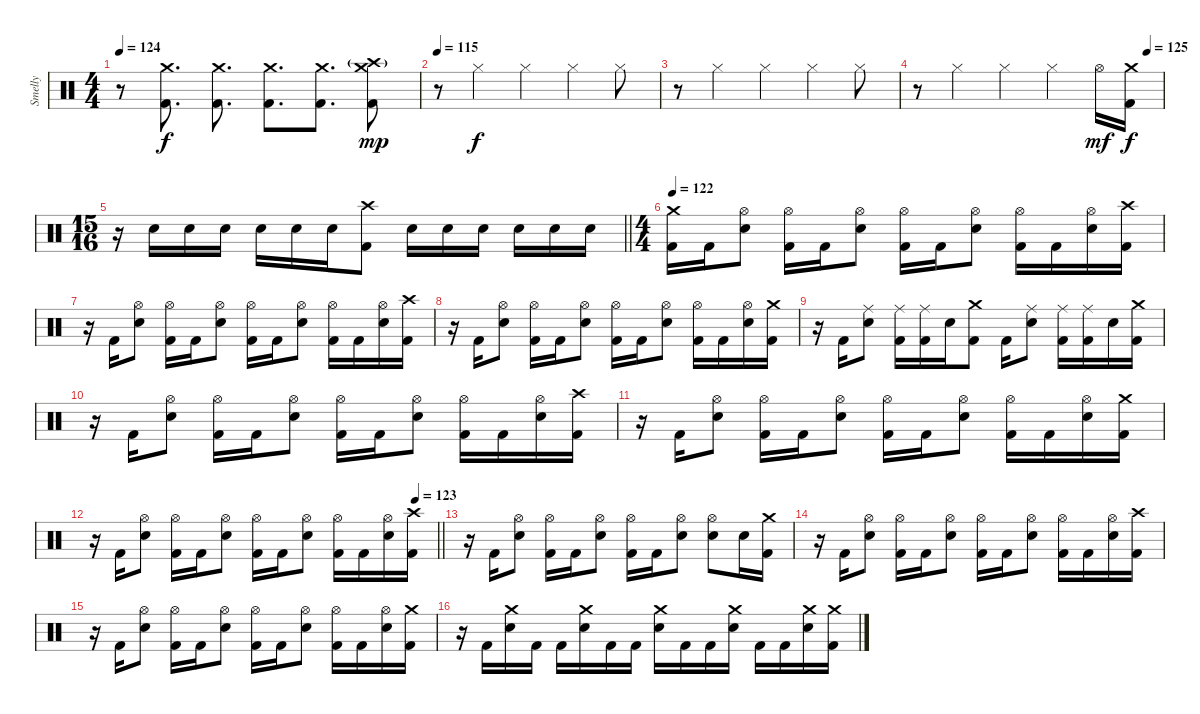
\track ("Smelly" "Smelly") {instrument percussion}
\staff {score}
\articulation defaults
\ts (4 4)
\tempo 124
\clef neutral
\ks c
r.8{dy mp} ("Crash medium (hit)" "Kick (hit) 2").8{d dy f} ("Crash medium (hit)" "Kick (hit) 2").8{d} ("Crash medium (hit)" "Kick (hit) 2").8{d} ("Crash medium (hit)" "Kick (hit) 2").8{d} ("Crash medium (hit)" "Crash high (hit)"{g} "Kick (hit) 2").8{dy mp} |
\tempo 115
r.8 "Hi-Hat (closed)".4{dy f} "Hi-Hat (closed)".4 "Hi-Hat (closed)".4 "Hi-Hat (closed)".8 |
r.8 "Hi-Hat (closed)".4 "Hi-Hat (closed)".4 "Hi-Hat (closed)".4 "Hi-Hat (closed)".8 |
\tempo (125 0.9375)
r.8 "Hi-Hat (closed)".4 "Hi-Hat (closed)".4 "Hi-Hat (closed)".4 "Hi-Hat (open)".16{dy mf} ("Crash medium (hit)" "Kick (hit) 2").16{dy f} |
\ts (15 16)
\barLineRight lightlight
r.16 "Electric Snare (hit)".16 "Electric Snare (hit)".16 "Electric Snare (hit)".16 "Electric Snare (hit)".16 "Electric Snare (hit)".16 "Electric Snare (hit)".16 ("Crash high (hit)" "Kick (hit) 2").8 "Electric Snare (hit)".16 "Electric Snare (hit)".16 "Electric Snare (hit)".16 "Electric Snare (hit)".16 "Electric Snare (hit)".16 "Electric Snare (hit)".16 |
\ts (4 4)
\section ("" "")
\tempo 122
("Crash medium (hit)" "Kick (hit) 2").16 "Kick (hit) 2".16 ("Hi-Hat (open)" "Electric Snare (hit)").8 ("Hi-Hat (open)" "Kick (hit) 2").16 "Kick (hit) 2".16 ("Hi-Hat (open)" "Electric Snare (hit)").8 ("Hi-Hat (open)" "Kick (hit) 2").16 "Kick (hit) 2".16 ("Hi-Hat (open)" "Electric Snare (hit)").8 ("Hi-Hat (open)" "Kick (hit) 2").16 "Kick (hit) 2".16 ("Hi-Hat (open)" "Electric Snare (hit)").16 ("Crash high (hit)" "Kick (hit) 2").16 |
r.16 "Kick (hit) 2".16 ("Hi-Hat (open)" "Electric Snare (hit)").8 ("Hi-Hat (open)" "Kick (hit) 2").16 "Kick (hit) 2".16 ("Hi-Hat (open)" "Electric Snare (hit)").8 ("Hi-Hat (open)" "Kick (hit) 2").16 "Kick (hit) 2".16 ("Hi-Hat (open)" "Electric Snare (hit)").8 ("Hi-Hat (open)" "Kick (hit) 2").16 "Kick (hit) 2".16 ("Hi-Hat (open)" "Electric Snare (hit)").16 ("Crash high (hit)" "Kick (hit) 2").16 |
r.16 "Kick (hit) 2".16 ("Hi-Hat (open)" "Electric Snare (hit)").8 ("Hi-Hat (open)" "Kick (hit) 2").16 "Kick (hit) 2".16 ("Hi-Hat (open)" "Electric Snare (hit)").8 ("Hi-Hat (open)" "Kick (hit) 2").16 "Kick (hit) 2".16 ("Hi-Hat (open)" "Electric Snare (hit)").8 ("Hi-Hat (open)" "Kick (hit) 2").16 "Kick (hit) 2".16 ("Hi-Hat (open)" "Electric Snare (hit)").16 ("Crash medium (hit)" "Kick (hit) 2").16 |
r.16 "Kick (hit) 2".16 ("Ride (middle)" "Electric Snare (hit)").8 ("Ride (middle)" "Kick (hit) 2").16 ("Ride (middle)" "Kick (hit) 2").16 "Electric Snare (hit)".16 ("Crash medium (hit)" "Kick (hit) 2").8 "Kick (hit) 2".16 ("Ride (middle)" "Electric Snare (hit)").8 ("Ride (middle)" "Kick (hit) 2").16 ("Ride (middle)" "Kick (hit) 2").16 "Electric Snare (hit)".16 ("Crash medium (hit)" "Kick (hit) 2").16 |
r.16 "Kick (hit) 2".16 ("Hi-Hat (open)" "Electric Snare (hit)").8 ("Hi-Hat (open)" "Kick (hit) 2").16 "Kick (hit) 2".16 ("Hi-Hat (open)" "Electric Snare (hit)").8 ("Hi-Hat (open)" "Kick (hit) 2").16 "Kick (hit) 2".16 ("Hi-Hat (open)" "Electric Snare (hit)").8 ("Hi-Hat (open)" "Kick (hit) 2").16 "Kick (hit) 2".16 ("Hi-Hat (open)" "Electric Snare (hit)").16 ("Crash high (hit)" "Kick (hit) 2").16 |
r.16 "Kick (hit) 2".16 ("Hi-Hat (open)" "Electric Snare (hit)").8 ("Hi-Hat (open)" "Kick (hit) 2").16 "Kick (hit) 2".16 ("Hi-Hat (open)" "Electric Snare (hit)").8 ("Hi-Hat (open)" "Kick (hit) 2").16 "Kick (hit) 2".16 ("Hi-Hat (open)" "Electric Snare (hit)").8 ("Hi-Hat (open)" "Kick (hit) 2").16 "Kick (hit) 2".16 ("Hi-Hat (open)" "Electric Snare (hit)").16 ("Crash medium (hit)" "Kick (hit) 2").16 |
\tempo (123 0.9375)
\barLineRight lightlight
r.16 "Kick (hit) 2".16 ("Hi-Hat (open)" "Electric Snare (hit)").8 ("Hi-Hat (open)" "Kick (hit) 2").16 "Kick (hit) 2".16 ("Hi-Hat (open)" "Electric Snare (hit)").8 ("Hi-Hat (open)" "Kick (hit) 2").16 "Kick (hit) 2".16 ("Hi-Hat (open)" "Electric Snare (hit)").8 ("Hi-Hat (open)" "Kick (hit) 2").16 "Kick (hit) 2".16 ("Hi-Hat (open)" "Electric Snare (hit)").16 ("Crash high (hit)" "Kick (hit) 2").16 |
\section ("" "")
r.16 "Kick (hit) 2".16 ("Hi-Hat (open)" "Electric Snare (hit)").8 ("Hi-Hat (open)" "Kick (hit) 2").16 "Kick (hit) 2".16 ("Hi-Hat (open)" "Electric Snare (hit)").8 ("Hi-Hat (open)" "Kick (hit) 2").16 "Kick (hit) 2".16 ("Hi-Hat (open)" "Electric Snare (hit)").8 ("Hi-Hat (open)" "Electric Snare (hit)").8 "Electric Snare (hit)".16 ("Crash medium (hit)" "Kick (hit) 2").16 |
r.16 "Kick (hit) 2".16 ("Hi-Hat (open)" "Electric Snare (hit)").8 ("Hi-Hat (open)" "Kick (hit) 2").16 "Kick (hit) 2".16 ("Hi-Hat (open)" "Electric Snare (hit)").8 ("Hi-Hat (open)" "Kick (hit) 2").16 "Kick (hit) 2".16 ("Hi-Hat (open)" "Electric Snare (hit)").8 ("Hi-Hat (open)" "Kick (hit) 2").16 "Kick (hit) 2".16 ("Hi-Hat (open)" "Electric Snare (hit)").16 ("Crash high (hit)" "Kick (hit) 2").16 |
r.16 "Kick (hit) 2".16 ("Hi-Hat (open)" "Electric Snare (hit)").8 ("Hi-Hat (open)" "Kick (hit) 2").16 "Kick (hit) 2".16 ("Hi-Hat (open)" "Electric Snare (hit)").8 ("Hi-Hat (open)" "Kick (hit) 2").16 "Kick (hit) 2".16 ("Hi-Hat (open)" "Electric Snare (hit)").8 ("Hi-Hat (open)" "Kick (hit) 2").16 "Kick (hit) 2".16 ("Hi-Hat (open)" "Electric Snare (hit)").16 ("Crash medium (hit)" "Kick (hit) 2").16 |
r.16 "Kick (hit) 2".16 ("Crash medium (hit)" "Electric Snare (hit)").16 "Kick (hit) 2".16 "Kick (hit) 2".16 ("Crash medium (hit)" "Electric Snare (hit)").16 "Kick (hit) 2".16 "Kick (hit) 2".16 ("Crash medium (hit)" "Electric Snare (hit)").16 "Kick (hit) 2".16 "Kick (hit) 2".16 ("Crash medium (hit)" "Electric Snare (hit)").16 "Kick (hit) 2".16 "Kick (hit) 2".16 ("Crash medium (hit)" "Electric Snare (hit)").16 ("Crash medium (hit)" "Kick (hit) 2").16
